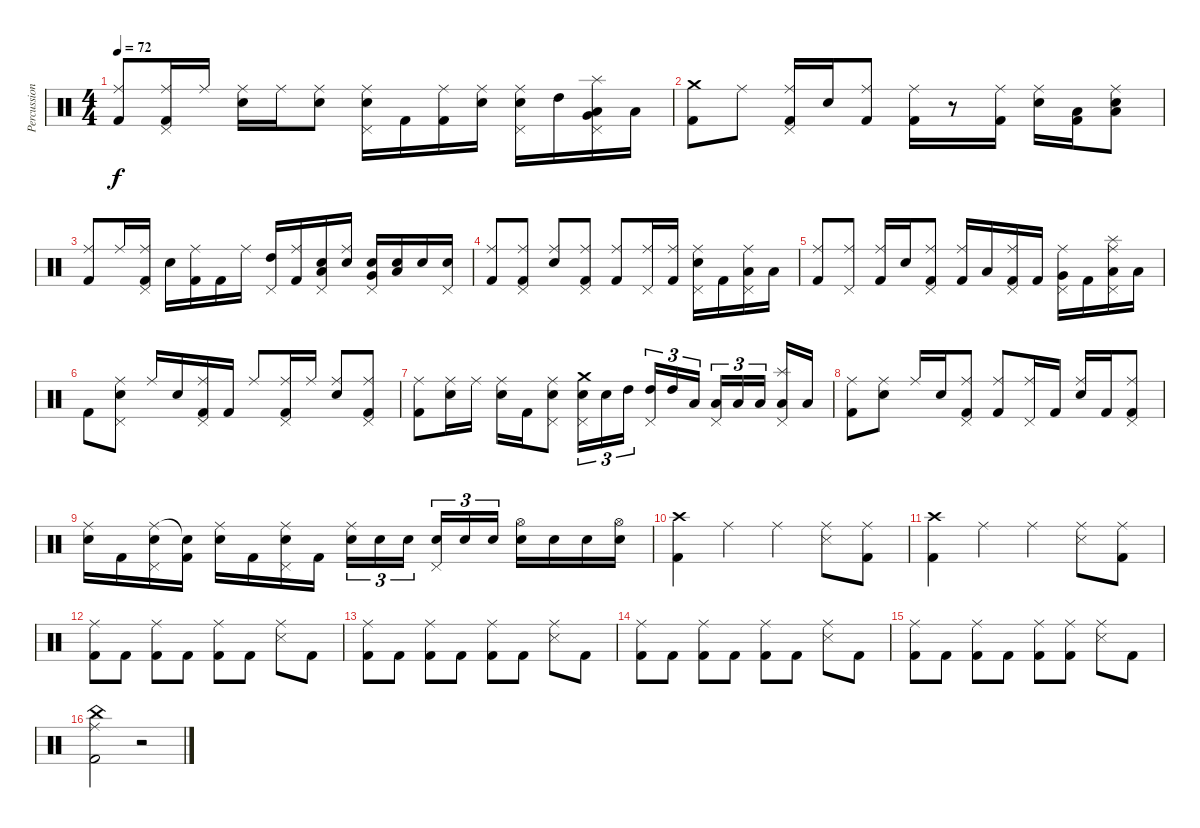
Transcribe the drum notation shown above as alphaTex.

\track ("Percussion" "Percussion") {instrument percussion}
\staff {score}
\articulation defaults
\ts (4 4)
\tempo 72
\clef neutral
\ks c
("Kick (hit) 2" "Ride (middle)").8{dy f} ("Kick (hit) 2" "Ride (middle)" "Pedal Hi-Hat (hit)").16 "Ride (middle)".16 ("Snare (hit) 2" "Ride (middle)").16 "Ride (middle)".16 ("Snare (hit) 2" "Ride (middle)").8 ("Snare (hit) 2" "Ride (middle)" "Pedal Hi-Hat (hit)").16 "Kick (hit) 2".16 ("Kick (hit) 2" "Ride (middle)").16 ("Snare (hit) 2" "Ride (middle)").16 ("Snare (hit) 2" "Ride (middle)" "Pedal Hi-Hat (hit)").16 "High Tom (hit)".16 ("Very Low Tom (hit)" "Low Tom (hit)" "Pedal Hi-Hat (hit)" "Splash (hit)").16 "Low Floor Tom (hit)".16 |
("Kick (hit) 2" "Crash medium (hit)").8 "Ride (middle)".8 ("Kick (hit) 2" "Ride (middle)" "Pedal Hi-Hat (hit)").16 "Snare (hit) 2".16 ("Kick (hit) 2" "Ride (middle)").8 ("Kick (hit) 2" "Ride (middle)").16 r.8 ("Kick (hit) 2" "Ride (middle)").16 ("Snare (hit) 2" "Ride (middle)").16 ("Kick (hit) 2" "Low Tom (hit)").16 ("Snare (hit) 2" "Ride (middle)" "Low Floor Tom (hit)").8 |
("Kick (hit) 2" "Ride (middle)").8 "Ride (middle)".16 ("Kick (hit) 2" "Ride (middle)" "Pedal Hi-Hat (hit)").16 "Snare (hit) 2".16 ("Kick (hit) 2" "Ride (middle)").16 "Kick (hit) 2".16 "Ride (middle)".16 ("Pedal Hi-Hat (hit)" "High Tom (hit)").16 ("Kick (hit) 2" "Ride (middle)").16 ("Snare (hit) 2" "Pedal Hi-Hat (hit)" "Low Tom (hit)").16 ("Snare (hit) 2" "Ride (middle)").16 ("Snare (hit) 2" "Pedal Hi-Hat (hit)" "Very Low Tom (hit)").16 ("Snare (hit) 2" "Low Floor Tom (hit)").16 "Snare (hit) 2".16 ("Snare (hit) 2" "Pedal Hi-Hat (hit)").16 |
("Kick (hit) 2" "Ride (middle)").8 ("Kick (hit) 2" "Ride (middle)" "Pedal Hi-Hat (hit)").8 ("Snare (hit) 2" "Ride (middle)").8 ("Kick (hit) 2" "Ride (middle)" "Pedal Hi-Hat (hit)").8 ("Kick (hit) 2" "Ride (middle)").8 ("Pedal Hi-Hat (hit)" "Ride (middle)").16 ("Kick (hit) 2" "Ride (middle)").16 ("Snare (hit) 2" "Ride (middle)" "Pedal Hi-Hat (hit)").16 "Kick (hit) 2".16 ("Low Floor Tom (hit)" "Ride (middle)" "Pedal Hi-Hat (hit)").16 "Low Tom (hit)".16 |
("Kick (hit) 2" "Ride (middle)").8 ("Pedal Hi-Hat (hit)" "Ride (middle)").8 ("Kick (hit) 2" "Ride (middle)").16 "Snare (hit) 2".16 ("Kick (hit) 2" "Ride (middle)" "Pedal Hi-Hat (hit)").8 ("Kick (hit) 2" "Ride (middle)").16 "Low Tom (hit)".16 ("Kick (hit) 2" "Ride (middle)" "Pedal Hi-Hat (hit)").16 "Kick (hit) 2".16 ("Very Low Tom (hit)" "Ride (middle)" "Pedal Hi-Hat (hit)").16 "Kick (hit) 2".16 ("Low Floor Tom (hit)" "Ride (middle)" "Splash (hit)" "Pedal Hi-Hat (hit)").16 "Low Floor Tom (hit)".16 |
"Kick (hit) 2".8 ("Snare (hit) 2" "Ride (middle)" "Pedal Hi-Hat (hit)").8 "Ride (middle)".16 "Snare (hit) 2".16 ("Kick (hit) 2" "Pedal Hi-Hat (hit)" "Ride (middle)").16 "Kick (hit) 2".16 "Ride (middle)".8 ("Kick (hit) 2" "Ride (middle)" "Pedal Hi-Hat (hit)").16 "Ride (middle)".16 ("Snare (hit) 2" "Ride (middle)").8 ("Kick (hit) 2" "Ride (middle)" "Pedal Hi-Hat (hit)").8 |
("Kick (hit) 2" "Ride (middle)").8 ("Snare (hit) 2" "Ride (middle)").16 "Ride (middle)".16 ("Snare (hit) 2" "Ride (middle)").16 "Kick (hit) 2".16 ("Snare (hit) 2" "Ride (middle)" "Pedal Hi-Hat (hit)").8 ("Snare (hit) 2" "Crash medium (hit)" "Pedal Hi-Hat (hit)").16{tu (3 2)} "Snare (hit) 2".16{tu (3 2)} "High Tom (hit)".16{tu (3 2)} ("High Tom (hit)" "Pedal Hi-Hat (hit)").16{tu (3 2)} "High Tom (hit)".16{tu (3 2)} "Low Tom (hit)".16{tu (3 2)} ("Low Tom (hit)" "Pedal Hi-Hat (hit)").16{tu (3 2)} "Low Tom (hit)".16{tu (3 2)} "Low Floor Tom (hit)".16{tu (3 2)} ("Low Floor Tom (hit)" "Splash (hit)" "Pedal Hi-Hat (hit)").16 "Low Floor Tom (hit)".16 |
("Kick (hit) 2" "Ride (middle)").8 ("Snare (hit) 2" "Ride (middle)").8 "Ride (middle)".16 "Snare (hit) 2".16 ("Kick (hit) 2" "Ride (middle)" "Pedal Hi-Hat (hit)").8 ("Kick (hit) 2" "Ride (middle)").8 ("Pedal Hi-Hat (hit)" "Ride (middle)").16 "Kick (hit) 2".16 ("Snare (hit) 2" "Ride (middle)").16 "Kick (hit) 2".16 ("Kick (hit) 2" "Pedal Hi-Hat (hit)" "Ride (middle)").8 |
("Snare (hit) 2" "Ride (middle)").16 "Kick (hit) 2".16 ("Snare (hit) 2" "Ride (middle)" "Pedal Hi-Hat (hit)").16 ("Kick (hit) 2" "Snare (hit)"{t}).16 ("Snare (hit) 2" "Ride (middle)").16 "Kick (hit) 2".16 ("Snare (hit) 2" "Ride (middle)" "Pedal Hi-Hat (hit)").16 "Kick (hit) 2".16 ("Snare (hit) 2" "Ride (middle)").16{tu (3 2)} "Snare (hit) 2".16{tu (3 2)} "Snare (hit) 2".16{tu (3 2)} ("Snare (hit) 2" "Pedal Hi-Hat (hit)").16{tu (3 2)} "Snare (hit) 2".16{tu (3 2)} "Snare (hit) 2".16{tu (3 2)} ("Snare (hit) 2" "Hi-Hat (open)").16 "Snare (hit) 2".16 "Snare (hit) 2".16 ("Snare (hit) 2" "Hi-Hat (open)").16 |
("Kick (hit) 2" "Crash high (hit)").4 "Ride (middle)".4 "Ride (middle)".4 ("Snare (side stick) 3" "Ride (middle)").8 ("Kick (hit) 2" "Ride (middle)").8 |
("Kick (hit) 2" "Crash high (hit)").4 "Ride (middle)".4 "Ride (middle)".4 ("Snare (side stick) 3" "Ride (middle)").8 ("Kick (hit) 2" "Ride (middle)").8 |
("Kick (hit) 2" "Ride (middle)").8 "Kick (hit) 2".8 ("Kick (hit) 2" "Ride (middle)").8 "Kick (hit) 2".8 ("Kick (hit) 2" "Ride (middle)").8 "Kick (hit) 2".8 ("Snare (side stick) 3" "Ride (middle)").8 "Kick (hit) 2".8 |
("Kick (hit) 2" "Ride (middle)").8 "Kick (hit) 2".8 ("Kick (hit) 2" "Ride (middle)").8 "Kick (hit) 2".8 ("Kick (hit) 2" "Ride (middle)").8 "Kick (hit) 2".8 ("Snare (side stick) 3" "Ride (middle)").8 "Kick (hit) 2".8 |
("Kick (hit) 2" "Ride (middle)").8 "Kick (hit) 2".8 ("Kick (hit) 2" "Ride (middle)").8 "Kick (hit) 2".8 ("Kick (hit) 2" "Ride (middle)").8 "Kick (hit) 2".8 ("Snare (side stick) 3" "Ride (middle)").8 "Kick (hit) 2".8 |
("Kick (hit) 2" "Ride (middle)").8 "Kick (hit) 2".8 ("Kick (hit) 2" "Ride (middle)").8 "Kick (hit) 2".8 ("Kick (hit) 2" "Ride (middle)").8 ("Kick (hit) 2" "Ride (middle)").8 ("Snare (side stick) 3" "Ride (middle)").8 "Kick (hit) 2".8 |
("Ride (middle)" "Kick (hit) 2" "China (hit)").2 r.2
